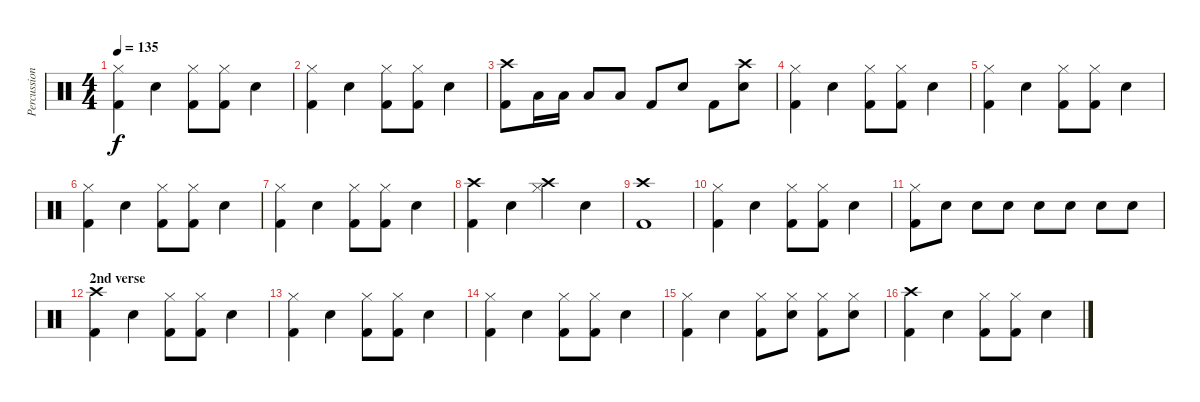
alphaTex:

\track ("Percussion" "Percussion") {instrument percussion}
\staff {score}
\articulation defaults
\ts (4 4)
\tempo 135
\clef neutral
\ks c
("Hi-Hat (closed)" "Kick (hit) 2").4{dy f} "Snare (hit) 2".4 ("Kick (hit) 2" "Hi-Hat (closed)").8 ("Kick (hit) 2" "Hi-Hat (closed)").8 "Snare (hit) 2".4 |
("Hi-Hat (closed)" "Kick (hit) 2").4 "Snare (hit) 2".4 ("Kick (hit) 2" "Hi-Hat (closed)").8 ("Kick (hit) 2" "Hi-Hat (closed)").8 "Snare (hit) 2".4 |
("Crash high (hit)" "Kick (hit) 2").8 "Low Tom (hit)".16 "Low Tom (hit)".16 "Low Tom (hit)".8 "Low Tom (hit)".8 "Kick (hit) 2".8 "Snare (hit) 2".8 "Kick (hit) 2".8 ("Snare (hit) 2" "Crash high (hit)").8 |
("Hi-Hat (closed)" "Kick (hit) 2").4 "Snare (hit) 2".4 ("Kick (hit) 2" "Hi-Hat (closed)").8 ("Kick (hit) 2" "Hi-Hat (closed)").8 "Snare (hit) 2".4 |
("Hi-Hat (closed)" "Kick (hit) 2").4 "Snare (hit) 2".4 ("Kick (hit) 2" "Hi-Hat (closed)").8 ("Kick (hit) 2" "Hi-Hat (closed)").8 "Snare (hit) 2".4 |
("Hi-Hat (closed)" "Kick (hit) 2").4 "Snare (hit) 2".4 ("Kick (hit) 2" "Hi-Hat (closed)").8 ("Kick (hit) 2" "Hi-Hat (closed)").8 "Snare (hit) 2".4 |
("Hi-Hat (closed)" "Kick (hit) 2").4 "Snare (hit) 2".4 ("Kick (hit) 2" "Hi-Hat (closed)").8 ("Kick (hit) 2" "Hi-Hat (closed)").8 "Snare (hit) 2".4 |
("Crash high (hit)" "Kick (hit) 2").4 "Snare (hit) 2".4 ("Crash high (hit)" "Hi-Hat (closed)").4 "Snare (hit) 2".4 |
("Crash high (hit)" "Kick (hit) 2").1 |
("Hi-Hat (closed)" "Kick (hit) 2").4 "Snare (hit) 2".4 ("Kick (hit) 2" "Hi-Hat (closed)").8 ("Kick (hit) 2" "Hi-Hat (closed)").8 "Snare (hit) 2".4 |
("Hi-Hat (closed)" "Kick (hit) 2").8 "Snare (hit) 2".8 "Snare (hit) 2".8 "Snare (hit) 2".8 "Snare (hit) 2".8 "Snare (hit) 2".8 "Snare (hit) 2".8 "Snare (hit) 2".8 |
\section ("" "2nd verse")
("Crash high (hit)" "Kick (hit) 2").4 "Snare (hit) 2".4 ("Kick (hit) 2" "Hi-Hat (closed)").8 ("Kick (hit) 2" "Hi-Hat (closed)").8 "Snare (hit) 2".4 |
("Hi-Hat (closed)" "Kick (hit) 2").4 "Snare (hit) 2".4 ("Kick (hit) 2" "Hi-Hat (closed)").8 ("Kick (hit) 2" "Hi-Hat (closed)").8 "Snare (hit) 2".4 |
("Hi-Hat (closed)" "Kick (hit) 2").4 "Snare (hit) 2".4 ("Kick (hit) 2" "Hi-Hat (closed)").8 ("Kick (hit) 2" "Hi-Hat (closed)").8 "Snare (hit) 2".4 |
("Hi-Hat (closed)" "Kick (hit) 2").4 "Snare (hit) 2".4 ("Kick (hit) 2" "Hi-Hat (closed)").8 ("Snare (hit) 2" "Hi-Hat (closed)").8 ("Kick (hit) 2" "Hi-Hat (closed)").8 ("Snare (hit) 2" "Hi-Hat (closed)").8 |
("Crash high (hit)" "Kick (hit) 2").4 "Snare (hit) 2".4 ("Kick (hit) 2" "Hi-Hat (closed)").8 ("Kick (hit) 2" "Hi-Hat (closed)").8 "Snare (hit) 2".4
